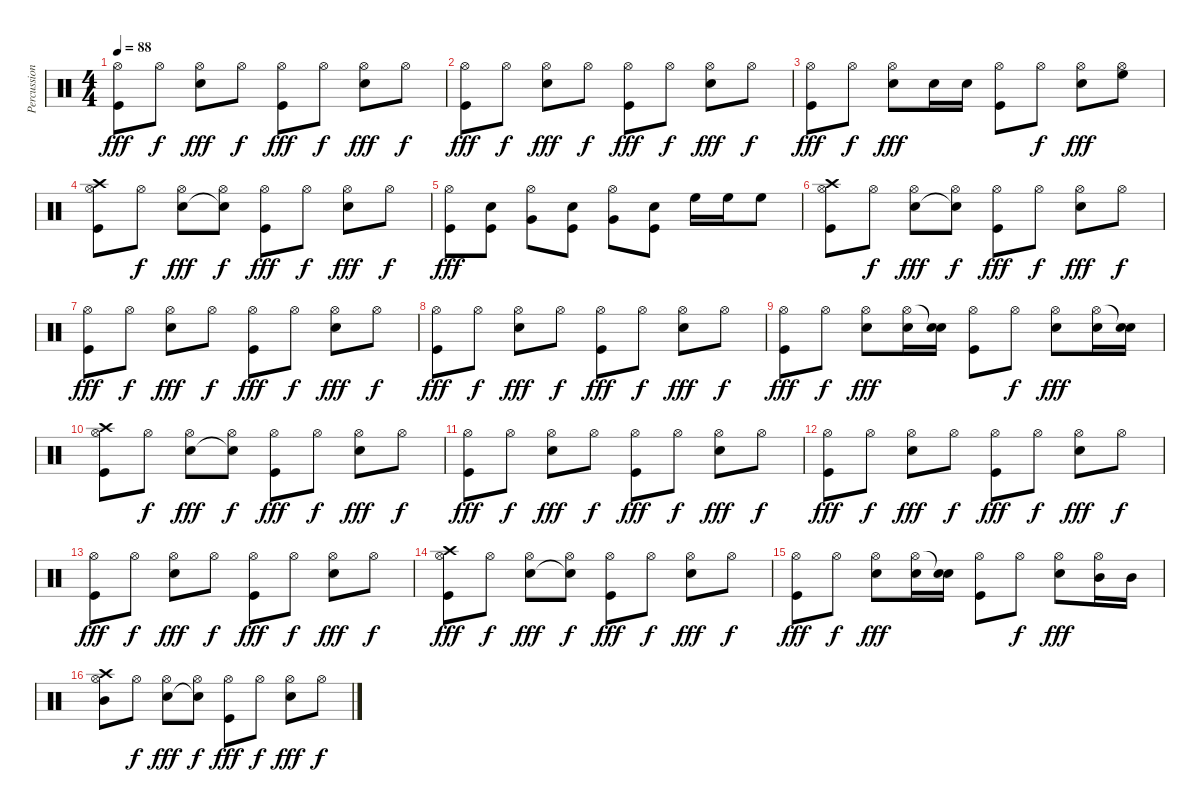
\track ("Percussions" "Percussion") {instrument percussion}
\staff {score}
\articulation defaults
\ts (4 4)
\tempo 88
\clef neutral
\ks c
("Hi-Hat (open)" "Kick (hit)").8{dy fff} "Hi-Hat (open)".8{dy f} ("Hi-Hat (open)" "Snare (hit) 2").8{dy fff} "Hi-Hat (open)".8{dy f} ("Hi-Hat (open)" "Kick (hit)").8{dy fff} "Hi-Hat (open)".8{dy f} ("Hi-Hat (open)" "Snare (hit) 2").8{dy fff} "Hi-Hat (open)".8{dy f} |
("Hi-Hat (open)" "Kick (hit)").8{dy fff} "Hi-Hat (open)".8{dy f} ("Hi-Hat (open)" "Snare (hit) 2").8{dy fff} "Hi-Hat (open)".8{dy f} ("Hi-Hat (open)" "Kick (hit)").8{dy fff} "Hi-Hat (open)".8{dy f} ("Hi-Hat (open)" "Snare (hit) 2").8{dy fff} "Hi-Hat (open)".8{dy f} |
("Hi-Hat (open)" "Kick (hit)").8{dy fff} "Hi-Hat (open)".8{dy f} ("Hi-Hat (open)" "Snare (hit) 2").8{dy fff} "Snare (hit) 2".16 "Snare (hit) 2".16 ("Hi-Hat (open)" "Kick (hit)").8 "Hi-Hat (open)".8{dy f} ("Hi-Hat (open)" "Snare (hit) 2").8{dy fff} ("Hi-Hat (open)" "High Floor Tom (hit)").8 |
("Hi-Hat (open)" "Kick (hit)" "Crash high (hit)").8 "Hi-Hat (open)".8{dy f} ("Hi-Hat (open)" "Snare (hit) 2").8{dy fff} ("Hi-Hat (open)" "Snare (hit)"{t}).8{dy f} ("Hi-Hat (open)" "Kick (hit)").8{dy fff} "Hi-Hat (open)".8{dy f} ("Hi-Hat (open)" "Snare (hit) 2").8{dy fff} "Hi-Hat (open)".8{dy f} |
("Hi-Hat (open)" "Kick (hit)").8{dy fff} ("Snare (hit) 2" "Kick (hit)").8 ("Hi-Hat (open)" "Very Low Tom (hit)").8 ("Snare (hit) 2" "Kick (hit)").8 ("Hi-Hat (open)" "Very Low Tom (hit)").8 ("Snare (hit) 2" "Kick (hit)").8 "High Floor Tom (hit)".16 "High Floor Tom (hit)".16 "High Floor Tom (hit)".8 |
("Hi-Hat (open)" "Kick (hit)" "Crash high (hit)").8 "Hi-Hat (open)".8{dy f} ("Hi-Hat (open)" "Snare (hit) 2").8{dy fff} ("Hi-Hat (open)" "Snare (hit)"{t}).8{dy f} ("Hi-Hat (open)" "Kick (hit)").8{dy fff} "Hi-Hat (open)".8{dy f} ("Hi-Hat (open)" "Snare (hit) 2").8{dy fff} "Hi-Hat (open)".8{dy f} |
("Hi-Hat (open)" "Kick (hit)").8{dy fff} "Hi-Hat (open)".8{dy f} ("Hi-Hat (open)" "Snare (hit) 2").8{dy fff} "Hi-Hat (open)".8{dy f} ("Hi-Hat (open)" "Kick (hit)").8{dy fff} "Hi-Hat (open)".8{dy f} ("Hi-Hat (open)" "Snare (hit) 2").8{dy fff} "Hi-Hat (open)".8{dy f} |
("Hi-Hat (open)" "Kick (hit)").8{dy fff} "Hi-Hat (open)".8{dy f} ("Hi-Hat (open)" "Snare (hit) 2").8{dy fff} "Hi-Hat (open)".8{dy f} ("Hi-Hat (open)" "Kick (hit)").8{dy fff} "Hi-Hat (open)".8{dy f} ("Hi-Hat (open)" "Snare (hit) 2").8{dy fff} "Hi-Hat (open)".8{dy f} |
("Hi-Hat (open)" "Kick (hit)").8{dy fff} "Hi-Hat (open)".8{dy f} ("Hi-Hat (open)" "Snare (hit) 2").8{dy fff} ("Hi-Hat (open)" "Snare (hit) 2").16 ("Snare (hit)"{t} "Snare (hit) 2").16 ("Hi-Hat (open)" "Kick (hit)").8 "Hi-Hat (open)".8{dy f} ("Hi-Hat (open)" "Snare (hit) 2").8{dy fff} ("Hi-Hat (open)" "Snare (hit) 2").16 ("Snare (hit)"{t} "Snare (hit) 2").16 |
("Hi-Hat (open)" "Kick (hit)" "Crash high (hit)").8 "Hi-Hat (open)".8{dy f} ("Hi-Hat (open)" "Snare (hit) 2").8{dy fff} ("Hi-Hat (open)" "Snare (hit)"{t}).8{dy f} ("Hi-Hat (open)" "Kick (hit)").8{dy fff} "Hi-Hat (open)".8{dy f} ("Hi-Hat (open)" "Snare (hit) 2").8{dy fff} "Hi-Hat (open)".8{dy f} |
("Hi-Hat (open)" "Kick (hit)").8{dy fff} "Hi-Hat (open)".8{dy f} ("Hi-Hat (open)" "Snare (hit) 2").8{dy fff} "Hi-Hat (open)".8{dy f} ("Hi-Hat (open)" "Kick (hit)").8{dy fff} "Hi-Hat (open)".8{dy f} ("Hi-Hat (open)" "Snare (hit) 2").8{dy fff} "Hi-Hat (open)".8{dy f} |
("Hi-Hat (open)" "Kick (hit)").8{dy fff} "Hi-Hat (open)".8{dy f} ("Hi-Hat (open)" "Snare (hit) 2").8{dy fff} "Hi-Hat (open)".8{dy f} ("Hi-Hat (open)" "Kick (hit)").8{dy fff} "Hi-Hat (open)".8{dy f} ("Hi-Hat (open)" "Snare (hit) 2").8{dy fff} "Hi-Hat (open)".8{dy f} |
("Hi-Hat (open)" "Kick (hit)").8{dy fff} "Hi-Hat (open)".8{dy f} ("Hi-Hat (open)" "Snare (hit) 2").8{dy fff} "Hi-Hat (open)".8{dy f} ("Hi-Hat (open)" "Kick (hit)").8{dy fff} "Hi-Hat (open)".8{dy f} ("Hi-Hat (open)" "Snare (hit) 2").8{dy fff} "Hi-Hat (open)".8{dy f} |
("Hi-Hat (open)" "Kick (hit)" "Crash high (hit)").8{dy fff} "Hi-Hat (open)".8{dy f} ("Hi-Hat (open)" "Snare (hit) 2").8{dy fff} ("Hi-Hat (open)" "Snare (hit)"{t}).8{dy f} ("Hi-Hat (open)" "Kick (hit)").8{dy fff} "Hi-Hat (open)".8{dy f} ("Hi-Hat (open)" "Snare (hit) 2").8{dy fff} "Hi-Hat (open)".8{dy f} |
("Hi-Hat (open)" "Kick (hit)").8{dy fff} "Hi-Hat (open)".8{dy f} ("Hi-Hat (open)" "Snare (hit) 2").8{dy fff} ("Hi-Hat (open)" "Snare (hit) 2").16 ("Snare (hit)"{t} "Snare (hit) 2").16 ("Hi-Hat (open)" "Kick (hit)").8 "Hi-Hat (open)".8{dy f} ("Hi-Hat (open)" "Snare (hit) 2").8{dy fff} ("Hi-Hat (open)" "Mid Tom (hit)").16 "Mid Tom (hit)".16 |
("Hi-Hat (open)" "Mid Tom (hit)" "Crash high (hit)").8 "Hi-Hat (open)".8{dy f} ("Hi-Hat (open)" "Snare (hit) 2").8{dy fff} ("Hi-Hat (open)" "Snare (hit)"{t}).8{dy f} ("Hi-Hat (open)" "Kick (hit)").8{dy fff} "Hi-Hat (open)".8{dy f} ("Hi-Hat (open)" "Snare (hit) 2").8{dy fff} "Hi-Hat (open)".8{dy f}
